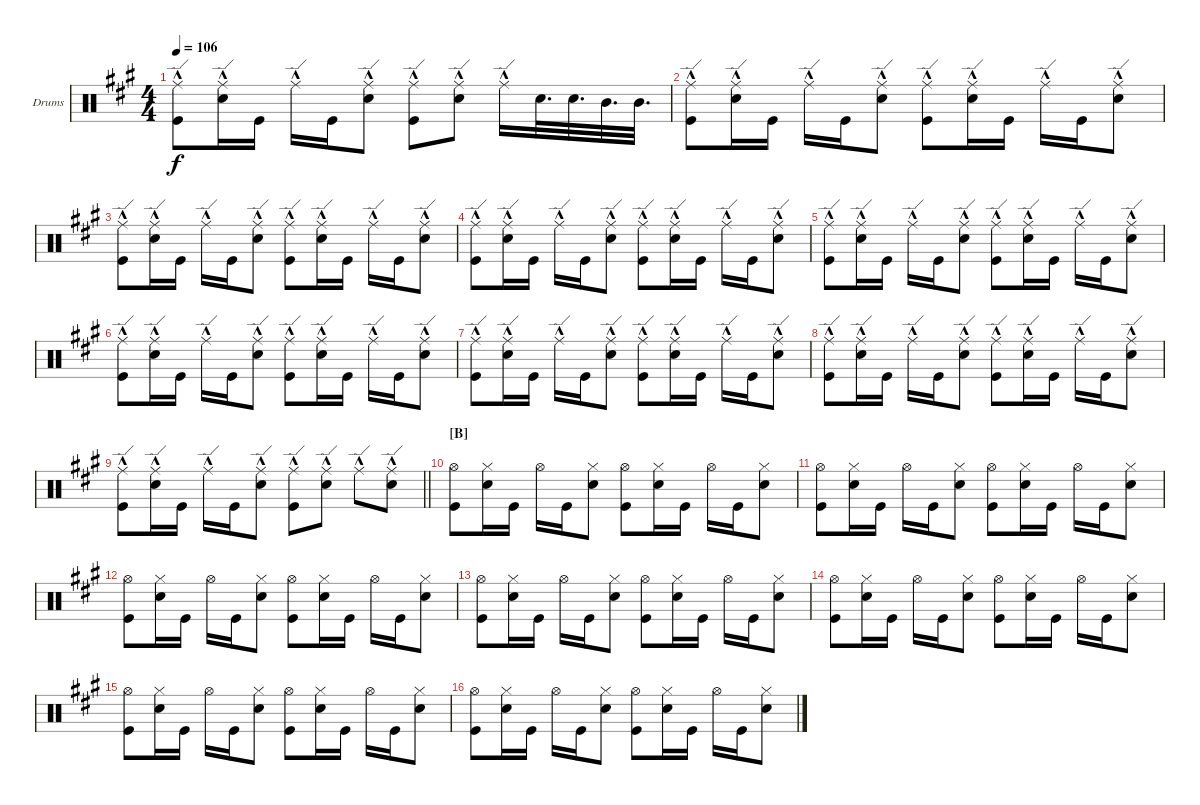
\bracketExtendMode groupsimilarinstruments
\firstSystemTrackNameOrientation horizontal
\otherSystemsTrackNameOrientation horizontal
\track ("Fabrizio Moretti" "Drums") {instrument percussion}
\staff {score}
\articulation defaults
\ts (4 4)
\tempo 106
\clef neutral
\ks a
("Ride (edge)"{hac} "Kick (hit)").8{dy f} ("Ride (edge)"{hac} "Snare (hit) 2").16 "Kick (hit)".16 "Ride (edge)"{hac}.16 "Kick (hit)".16 ("Ride (edge)"{hac} "Snare (hit) 2").8 ("Ride (edge)"{hac} "Kick (hit)").8 ("Ride (edge)"{hac} "Snare (hit) 2").8 "Ride (edge)"{hac}.16 "Snare (hit) 2".32{d} "Snare (hit) 2".32{d} "Mid Tom (hit)".32{d} "Mid Tom (hit)".32{d} |
("Ride (edge)"{hac} "Kick (hit)").8 ("Ride (edge)"{hac} "Snare (hit) 2").16 "Kick (hit)".16 "Ride (edge)"{hac}.16 "Kick (hit)".16 ("Ride (edge)"{hac} "Snare (hit) 2").8 ("Ride (edge)"{hac} "Kick (hit)").8 ("Ride (edge)"{hac} "Snare (hit) 2").16 "Kick (hit)".16 "Ride (edge)"{hac}.16 "Kick (hit)".16 ("Ride (edge)"{hac} "Snare (hit) 2").8 |
("Ride (edge)"{hac} "Kick (hit)").8 ("Ride (edge)"{hac} "Snare (hit) 2").16 "Kick (hit)".16 "Ride (edge)"{hac}.16 "Kick (hit)".16 ("Ride (edge)"{hac} "Snare (hit) 2").8 ("Ride (edge)"{hac} "Kick (hit)").8 ("Ride (edge)"{hac} "Snare (hit) 2").16 "Kick (hit)".16 "Ride (edge)"{hac}.16 "Kick (hit)".16 ("Ride (edge)"{hac} "Snare (hit) 2").8 |
("Ride (edge)"{hac} "Kick (hit)").8 ("Ride (edge)"{hac} "Snare (hit) 2").16 "Kick (hit)".16 "Ride (edge)"{hac}.16 "Kick (hit)".16 ("Ride (edge)"{hac} "Snare (hit) 2").8 ("Ride (edge)"{hac} "Kick (hit)").8 ("Ride (edge)"{hac} "Snare (hit) 2").16 "Kick (hit)".16 "Ride (edge)"{hac}.16 "Kick (hit)".16 ("Ride (edge)"{hac} "Snare (hit) 2").8 |
("Ride (edge)"{hac} "Kick (hit)").8 ("Ride (edge)"{hac} "Snare (hit) 2").16 "Kick (hit)".16 "Ride (edge)"{hac}.16 "Kick (hit)".16 ("Ride (edge)"{hac} "Snare (hit) 2").8 ("Ride (edge)"{hac} "Kick (hit)").8 ("Ride (edge)"{hac} "Snare (hit) 2").16 "Kick (hit)".16 "Ride (edge)"{hac}.16 "Kick (hit)".16 ("Ride (edge)"{hac} "Snare (hit) 2").8 |
("Ride (edge)"{hac} "Kick (hit)").8 ("Ride (edge)"{hac} "Snare (hit) 2").16 "Kick (hit)".16 "Ride (edge)"{hac}.16 "Kick (hit)".16 ("Ride (edge)"{hac} "Snare (hit) 2").8 ("Ride (edge)"{hac} "Kick (hit)").8 ("Ride (edge)"{hac} "Snare (hit) 2").16 "Kick (hit)".16 "Ride (edge)"{hac}.16 "Kick (hit)".16 ("Ride (edge)"{hac} "Snare (hit) 2").8 |
("Ride (edge)"{hac} "Kick (hit)").8 ("Ride (edge)"{hac} "Snare (hit) 2").16 "Kick (hit)".16 "Ride (edge)"{hac}.16 "Kick (hit)".16 ("Ride (edge)"{hac} "Snare (hit) 2").8 ("Ride (edge)"{hac} "Kick (hit)").8 ("Ride (edge)"{hac} "Snare (hit) 2").16 "Kick (hit)".16 "Ride (edge)"{hac}.16 "Kick (hit)".16 ("Ride (edge)"{hac} "Snare (hit) 2").8 |
("Ride (edge)"{hac} "Kick (hit)").8 ("Ride (edge)"{hac} "Snare (hit) 2").16 "Kick (hit)".16 "Ride (edge)"{hac}.16 "Kick (hit)".16 ("Ride (edge)"{hac} "Snare (hit) 2").8 ("Ride (edge)"{hac} "Kick (hit)").8 ("Ride (edge)"{hac} "Snare (hit) 2").16 "Kick (hit)".16 "Ride (edge)"{hac}.16 "Kick (hit)".16 ("Ride (edge)"{hac} "Snare (hit) 2").8 |
\barLineRight lightlight
("Ride (edge)"{hac} "Kick (hit)").8 ("Ride (edge)"{hac} "Snare (hit) 2").16 "Kick (hit)".16 "Ride (edge)"{hac}.16 "Kick (hit)".16 ("Ride (edge)"{hac} "Snare (hit) 2").8 ("Ride (edge)"{hac} "Kick (hit)").8 ("Ride (edge)"{hac} "Snare (hit) 2").8 "Ride (edge)"{hac}.8 ("Ride (edge)"{hac} "Snare (hit) 2").8 |
\section ("B" "")
("Hi-Hat (open)" "Kick (hit)").8 ("Hi-Hat (closed)" "Snare (hit) 2").16 "Kick (hit)".16 "Hi-Hat (open)".16 "Kick (hit)".16 ("Hi-Hat (closed)" "Snare (hit) 2").8 ("Hi-Hat (open)" "Kick (hit)").8 ("Hi-Hat (closed)" "Snare (hit) 2").16 "Kick (hit)".16 "Hi-Hat (open)".16 "Kick (hit)".16 ("Hi-Hat (closed)" "Snare (hit) 2").8 |
("Hi-Hat (open)" "Kick (hit)").8 ("Hi-Hat (closed)" "Snare (hit) 2").16 "Kick (hit)".16 "Hi-Hat (open)".16 "Kick (hit)".16 ("Hi-Hat (closed)" "Snare (hit) 2").8 ("Hi-Hat (open)" "Kick (hit)").8 ("Hi-Hat (closed)" "Snare (hit) 2").16 "Kick (hit)".16 "Hi-Hat (open)".16 "Kick (hit)".16 ("Hi-Hat (closed)" "Snare (hit) 2").8 |
("Hi-Hat (open)" "Kick (hit)").8 ("Hi-Hat (closed)" "Snare (hit) 2").16 "Kick (hit)".16 "Hi-Hat (open)".16 "Kick (hit)".16 ("Hi-Hat (closed)" "Snare (hit) 2").8 ("Hi-Hat (open)" "Kick (hit)").8 ("Hi-Hat (closed)" "Snare (hit) 2").16 "Kick (hit)".16 "Hi-Hat (open)".16 "Kick (hit)".16 ("Hi-Hat (closed)" "Snare (hit) 2").8 |
("Hi-Hat (open)" "Kick (hit)").8 ("Hi-Hat (closed)" "Snare (hit) 2").16 "Kick (hit)".16 "Hi-Hat (open)".16 "Kick (hit)".16 ("Hi-Hat (closed)" "Snare (hit) 2").8 ("Hi-Hat (open)" "Kick (hit)").8 ("Hi-Hat (closed)" "Snare (hit) 2").16 "Kick (hit)".16 "Hi-Hat (open)".16 "Kick (hit)".16 ("Hi-Hat (closed)" "Snare (hit) 2").8 |
("Hi-Hat (open)" "Kick (hit)").8 ("Hi-Hat (closed)" "Snare (hit) 2").16 "Kick (hit)".16 "Hi-Hat (open)".16 "Kick (hit)".16 ("Hi-Hat (closed)" "Snare (hit) 2").8 ("Hi-Hat (open)" "Kick (hit)").8 ("Hi-Hat (closed)" "Snare (hit) 2").16 "Kick (hit)".16 "Hi-Hat (open)".16 "Kick (hit)".16 ("Hi-Hat (closed)" "Snare (hit) 2").8 |
("Hi-Hat (open)" "Kick (hit)").8 ("Hi-Hat (closed)" "Snare (hit) 2").16 "Kick (hit)".16 "Hi-Hat (open)".16 "Kick (hit)".16 ("Hi-Hat (closed)" "Snare (hit) 2").8 ("Hi-Hat (open)" "Kick (hit)").8 ("Hi-Hat (closed)" "Snare (hit) 2").16 "Kick (hit)".16 "Hi-Hat (open)".16 "Kick (hit)".16 ("Hi-Hat (closed)" "Snare (hit) 2").8 |
("Hi-Hat (open)" "Kick (hit)").8 ("Hi-Hat (closed)" "Snare (hit) 2").16 "Kick (hit)".16 "Hi-Hat (open)".16 "Kick (hit)".16 ("Hi-Hat (closed)" "Snare (hit) 2").8 ("Hi-Hat (open)" "Kick (hit)").8 ("Hi-Hat (closed)" "Snare (hit) 2").16 "Kick (hit)".16 "Hi-Hat (open)".16 "Kick (hit)".16 ("Hi-Hat (closed)" "Snare (hit) 2").8
